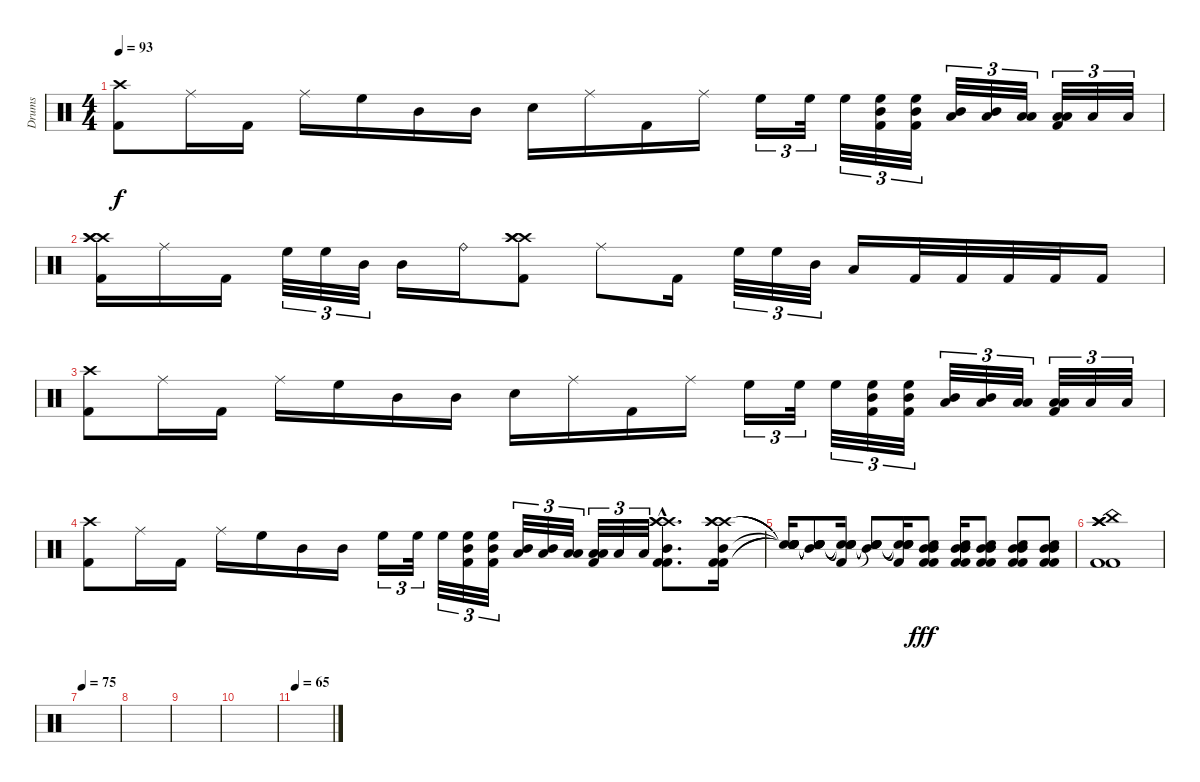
\track ("Drums" "Drums") {instrument percussion}
\staff {score}
\articulation defaults
\ts (4 4)
\tempo 93
\clef neutral
\ks c
("Crash high (hit)" "Kick (hit) 2").8{dy f} "Ride (middle)".16 "Kick (hit) 2".16 "Ride (middle)".16 "High Floor Tom (hit)".16 "Mid Tom (hit)".16 "Mid Tom (hit)".16 "Snare (hit) 2".16 "Ride (middle)".16 "Kick (hit) 2".16 "Ride (middle)".16 "High Floor Tom (hit)".16{tu (3 2)} "High Floor Tom (hit)".32{tu (3 2)} "High Floor Tom (hit)".32{tu (3 2)} ("Kick (hit) 2" "High Floor Tom (hit)" "Mid Tom (hit)").32{tu (3 2)} ("Kick (hit) 2" "High Floor Tom (hit)" "Mid Tom (hit)").32{tu (3 2)} ("Mid Tom (hit)" "Low Tom (hit)").32{tu (3 2)} ("Mid Tom (hit)" "Low Tom (hit)").32{tu (3 2)} ("Low Tom (hit)" "Low Floor Tom (hit)").32{tu (3 2)} ("Kick (hit) 2" "Low Tom (hit)" "Low Floor Tom (hit)").32{tu (3 2)} "Low Floor Tom (hit)".32{tu (3 2)} "Low Floor Tom (hit)".32{tu (3 2)} |
("Crash high (hit)" "Crash high (hit)" "Crash high (hit)" "Kick (hit) 2").16 "Ride (middle)".16 "Kick (hit) 2".16 "High Floor Tom (hit)".32{tu (3 2)} "High Floor Tom (hit)".32{tu (3 2)} "Mid Tom (hit)".32{tu (3 2)} "Mid Tom (hit)".16 "Ride (bell)".16 ("Crash high (hit)" "Kick (hit) 2" "Crash high (hit)" "Crash high (hit)").8 "Ride (middle)".8 "Kick (hit) 2".16 "High Floor Tom (hit)".32{tu (3 2)} "High Floor Tom (hit)".32{tu (3 2)} "Mid Tom (hit)".32{tu (3 2)} "Low Tom (hit)".16 "Kick (hit) 2".32 "Kick (hit) 2".32 "Kick (hit) 2".32 "Kick (hit) 2".32 "Kick (hit) 2".16 |
("Crash high (hit)" "Kick (hit) 2").8 "Ride (middle)".16 "Kick (hit) 2".16 "Ride (middle)".16 "High Floor Tom (hit)".16 "Mid Tom (hit)".16 "Mid Tom (hit)".16 "Snare (hit) 2".16 "Ride (middle)".16 "Kick (hit) 2".16 "Ride (middle)".16 "High Floor Tom (hit)".16{tu (3 2)} "High Floor Tom (hit)".32{tu (3 2)} "High Floor Tom (hit)".32{tu (3 2)} ("Kick (hit) 2" "High Floor Tom (hit)" "Mid Tom (hit)").32{tu (3 2)} ("Kick (hit) 2" "High Floor Tom (hit)" "Mid Tom (hit)").32{tu (3 2)} ("Mid Tom (hit)" "Low Tom (hit)").32{tu (3 2)} ("Mid Tom (hit)" "Low Tom (hit)").32{tu (3 2)} ("Low Tom (hit)" "Low Floor Tom (hit)").32{tu (3 2)} ("Kick (hit) 2" "Low Tom (hit)" "Low Floor Tom (hit)").32{tu (3 2)} "Low Floor Tom (hit)".32{tu (3 2)} "Low Floor Tom (hit)".32{tu (3 2)} |
("Crash high (hit)" "Kick (hit) 2").8 "Ride (middle)".16 "Kick (hit) 2".16 "Ride (middle)".16 "High Floor Tom (hit)".16 "Mid Tom (hit)".16 "Mid Tom (hit)".16 "High Floor Tom (hit)".16{tu (3 2)} "High Floor Tom (hit)".32{tu (3 2)} "High Floor Tom (hit)".32{tu (3 2)} ("Kick (hit) 2" "High Floor Tom (hit)" "Mid Tom (hit)").32{tu (3 2)} ("Kick (hit) 2" "High Floor Tom (hit)" "Mid Tom (hit)").32{tu (3 2)} ("Mid Tom (hit)" "Low Tom (hit)").32{tu (3 2)} ("Mid Tom (hit)" "Low Tom (hit)").32{tu (3 2)} ("Low Tom (hit)" "Low Floor Tom (hit)").32{tu (3 2)} ("Kick (hit) 2" "Low Tom (hit)" "Low Floor Tom (hit)").32{tu (3 2)} "Low Floor Tom (hit)".32{tu (3 2)} "Low Floor Tom (hit)".32{tu (3 2)} ("Crash high (hit)"{hac} "Crash high (hit)"{hac} "Crash high (hit)"{hac} "Mid Tom (hit)"{hac} "Kick (hit) 2"{hac} "Kick (hit) 2"{hac}).8{d} ("Crash high (hit)" "Crash high (hit)" "Crash high (hit)" "Mid Tom (hit)" "Kick (hit) 2" "Kick (hit) 2").16 |
("Snare (hit)"{t} "Snare (hit)"{t} "Snare (hit)"{t} "Snare (hit)"{t} "Snare (hit)"{t} "Snare (hit)"{t}).16 ("Snare (hit)"{t} "Snare (hit)"{t} "Snare (hit)"{t} "Mid Tom (hit)" "Snare (hit)"{t} "Snare (hit)"{t}).8 ("Snare (hit)"{t} "Snare (hit)"{t} "Snare (hit)"{t} "Snare (hit)"{t} "Kick (hit) 2").16 ("Snare (hit)"{t} "Snare (hit)"{t} "Snare (hit)"{t} "Mid Tom (hit)" "Snare (hit)"{t}).8 ("Snare (hit)"{t} "Snare (hit)"{t} "Snare (hit)"{t} "Snare (hit)"{t} "Kick (hit) 2").16 ("Mid Tom (hit)" "Mid Tom (hit)" "Snare (hit) 2" "Kick (hit) 2" "Kick (hit) 2").8{dy fff} ("Mid Tom (hit)" "Mid Tom (hit)" "Snare (hit) 2" "Kick (hit) 2" "Kick (hit) 2").16 ("Mid Tom (hit)" "Mid Tom (hit)" "Snare (hit) 2" "Kick (hit) 2" "Kick (hit) 2").8 ("Mid Tom (hit)" "Mid Tom (hit)" "Snare (hit) 2" "Kick (hit) 2" "Kick (hit) 2").8 ("Mid Tom (hit)" "Mid Tom (hit)" "Snare (hit) 2" "Kick (hit) 2" "Kick (hit) 2").8 |
("Crash high (hit)" "Crash high (hit)" "Crash high (hit)" "China (hit)" "Kick (hit) 2" "Kick (hit) 2").1 |
\tempo 75
|
|
|
|
\tempo 65
